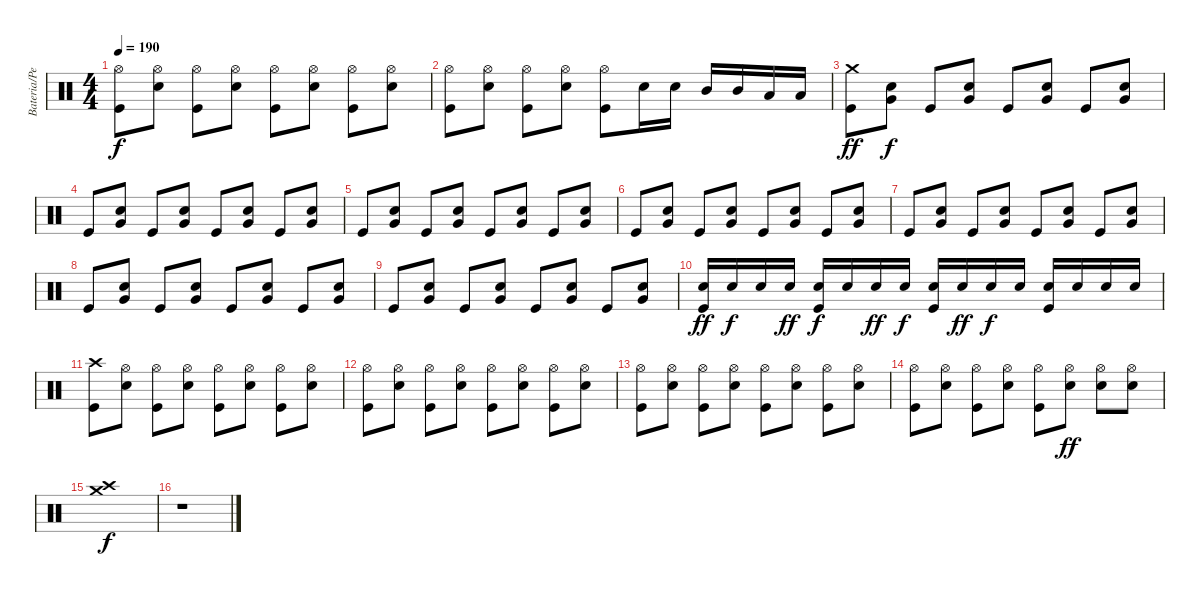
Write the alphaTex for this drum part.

\track ("Bateria/Percussion" "Bateria/Pe") {instrument percussion}
\staff {score}
\articulation defaults
\ts (4 4)
\tempo 190
\clef neutral
\ks c
("Hi-Hat (open)" "Kick (hit)").8{dy f} ("Hi-Hat (open)" "Snare (hit) 2").8 ("Hi-Hat (open)" "Kick (hit)").8 ("Hi-Hat (open)" "Snare (hit) 2").8 ("Hi-Hat (open)" "Kick (hit)").8 ("Hi-Hat (open)" "Snare (hit) 2").8 ("Hi-Hat (open)" "Kick (hit)").8 ("Hi-Hat (open)" "Snare (hit) 2").8 |
("Hi-Hat (open)" "Kick (hit)").8 ("Hi-Hat (open)" "Snare (hit) 2").8 ("Hi-Hat (open)" "Kick (hit)").8 ("Hi-Hat (open)" "Snare (hit) 2").8 ("Hi-Hat (open)" "Kick (hit)").8 "Snare (hit) 2".16 "Snare (hit) 2".16 "Mid Tom (hit)".16 "Mid Tom (hit)".16 "Low Tom (hit)".16 "Low Tom (hit)".16 |
("Crash medium (hit)" "Kick (hit)").8{dy ff} ("Very Low Tom (hit)" "Snare (hit) 2").8{dy f} "Kick (hit)".8 ("Very Low Tom (hit)" "Snare (hit) 2").8 "Kick (hit)".8 ("Very Low Tom (hit)" "Snare (hit) 2").8 "Kick (hit)".8 ("Very Low Tom (hit)" "Snare (hit) 2").8 |
"Kick (hit)".8 ("Very Low Tom (hit)" "Snare (hit) 2").8 "Kick (hit)".8 ("Very Low Tom (hit)" "Snare (hit) 2").8 "Kick (hit)".8 ("Very Low Tom (hit)" "Snare (hit) 2").8 "Kick (hit)".8 ("Very Low Tom (hit)" "Snare (hit) 2").8 |
"Kick (hit)".8 ("Very Low Tom (hit)" "Snare (hit) 2").8 "Kick (hit)".8 ("Very Low Tom (hit)" "Snare (hit) 2").8 "Kick (hit)".8 ("Very Low Tom (hit)" "Snare (hit) 2").8 "Kick (hit)".8 ("Very Low Tom (hit)" "Snare (hit) 2").8 |
"Kick (hit)".8 ("Very Low Tom (hit)" "Snare (hit) 2").8 "Kick (hit)".8 ("Very Low Tom (hit)" "Snare (hit) 2").8 "Kick (hit)".8 ("Very Low Tom (hit)" "Snare (hit) 2").8 "Kick (hit)".8 ("Very Low Tom (hit)" "Snare (hit) 2").8 |
"Kick (hit)".8 ("Very Low Tom (hit)" "Snare (hit) 2").8 "Kick (hit)".8 ("Very Low Tom (hit)" "Snare (hit) 2").8 "Kick (hit)".8 ("Very Low Tom (hit)" "Snare (hit) 2").8 "Kick (hit)".8 ("Very Low Tom (hit)" "Snare (hit) 2").8 |
"Kick (hit)".8 ("Very Low Tom (hit)" "Snare (hit) 2").8 "Kick (hit)".8 ("Very Low Tom (hit)" "Snare (hit) 2").8 "Kick (hit)".8 ("Very Low Tom (hit)" "Snare (hit) 2").8 "Kick (hit)".8 ("Very Low Tom (hit)" "Snare (hit) 2").8 |
"Kick (hit)".8 ("Very Low Tom (hit)" "Snare (hit) 2").8 "Kick (hit)".8 ("Very Low Tom (hit)" "Snare (hit) 2").8 "Kick (hit)".8 ("Very Low Tom (hit)" "Snare (hit) 2").8 "Kick (hit)".8 ("Very Low Tom (hit)" "Snare (hit) 2").8 |
("Snare (hit) 2" "Kick (hit)").16{dy ff} "Snare (hit) 2".16{dy f} "Snare (hit) 2".16 "Snare (hit) 2".16{dy ff} ("Snare (hit) 2" "Kick (hit)").16{dy f} "Snare (hit) 2".16 "Snare (hit) 2".16{dy ff} "Snare (hit) 2".16{dy f} ("Snare (hit) 2" "Kick (hit)").16 "Snare (hit) 2".16{dy ff} "Snare (hit) 2".16{dy f} "Snare (hit) 2".16 ("Snare (hit) 2" "Kick (hit)").16 "Snare (hit) 2".16 "Snare (hit) 2".16 "Snare (hit) 2".16 |
("Crash high (hit)" "Kick (hit)").8 ("Hi-Hat (open)" "Snare (hit) 2").8 ("Hi-Hat (open)" "Kick (hit)").8 ("Hi-Hat (open)" "Snare (hit) 2").8 ("Hi-Hat (open)" "Kick (hit)").8 ("Hi-Hat (open)" "Snare (hit) 2").8 ("Hi-Hat (open)" "Kick (hit)").8 ("Hi-Hat (open)" "Snare (hit) 2").8 |
("Hi-Hat (open)" "Kick (hit)").8 ("Hi-Hat (open)" "Snare (hit) 2").8 ("Hi-Hat (open)" "Kick (hit)").8 ("Hi-Hat (open)" "Snare (hit) 2").8 ("Hi-Hat (open)" "Kick (hit)").8 ("Hi-Hat (open)" "Snare (hit) 2").8 ("Hi-Hat (open)" "Kick (hit)").8 ("Hi-Hat (open)" "Snare (hit) 2").8 |
("Hi-Hat (open)" "Kick (hit)").8 ("Hi-Hat (open)" "Snare (hit) 2").8 ("Hi-Hat (open)" "Kick (hit)").8 ("Hi-Hat (open)" "Snare (hit) 2").8 ("Hi-Hat (open)" "Kick (hit)").8 ("Hi-Hat (open)" "Snare (hit) 2").8 ("Hi-Hat (open)" "Kick (hit)").8 ("Hi-Hat (open)" "Snare (hit) 2").8 |
("Hi-Hat (open)" "Kick (hit)").8 ("Hi-Hat (open)" "Snare (hit) 2").8 ("Hi-Hat (open)" "Kick (hit)").8 ("Hi-Hat (open)" "Snare (hit) 2").8 ("Hi-Hat (open)" "Kick (hit)").8 ("Hi-Hat (open)" "Snare (hit) 2").8{dy ff} ("Hi-Hat (open)" "Snare (hit) 2").8 ("Hi-Hat (open)" "Snare (hit) 2").8 |
("Crash high (hit)" "Crash medium (hit)").1{dy f} |
r.1
